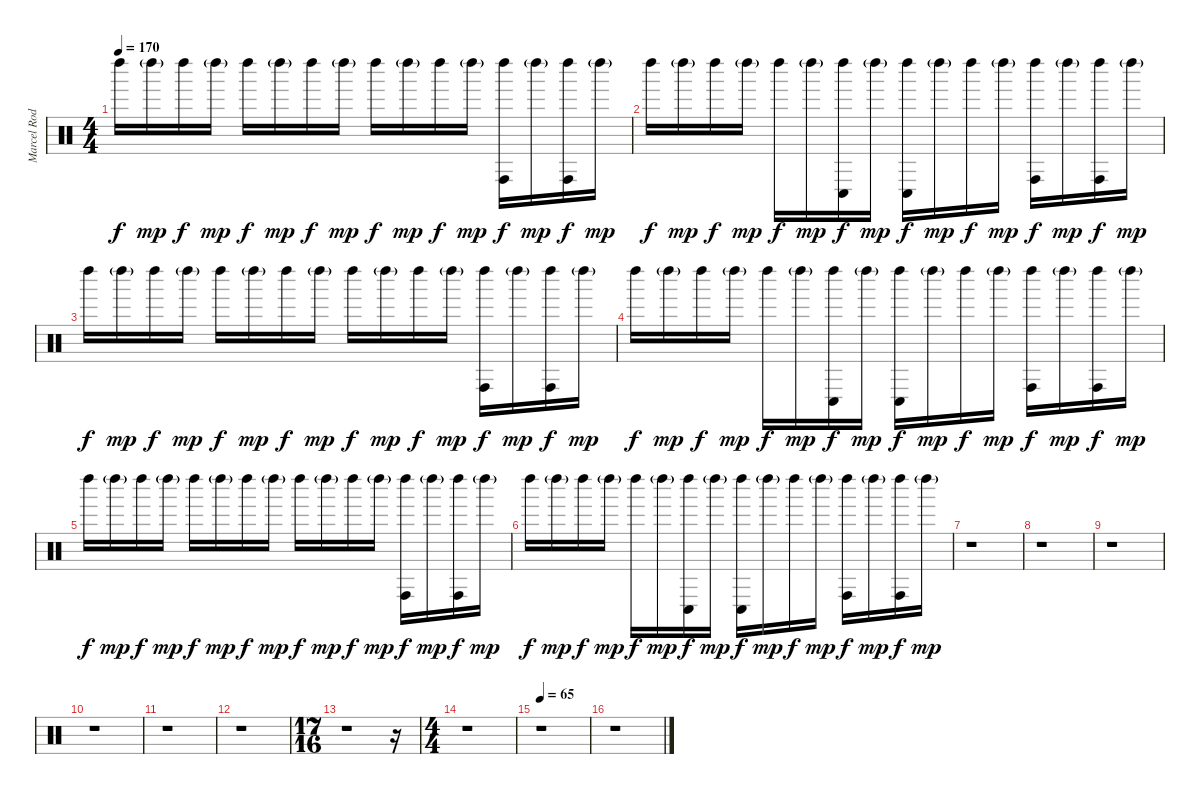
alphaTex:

\track ("Marcel Rodriguez-Lopez/Adrian Terrazas [" "Marcel Rod") {instrument percussion}
\staff {score}
\articulation defaults
\ts (4 4)
\tempo 170
\clef neutral
\ks c "Left Maraca (hit)".16{dy f} "Left Maraca (hit)"{g}.16{dy mp} "Left Maraca (hit)".16{dy f} "Left Maraca (hit)"{g}.16{dy mp} "Left Maraca (hit)".16{dy f} "Left Maraca (hit)"{g}.16{dy mp} "Left Maraca (hit)".16{dy f} "Left Maraca (hit)"{g}.16{dy mp} "Left Maraca (hit)".16{dy f} "Left Maraca (hit)"{g}.16{dy mp} "Left Maraca (hit)".16{dy f} "Left Maraca (hit)"{g}.16{dy mp}
("Left Maraca (hit)" "Conga high (hit)").16{dy f} "Left Maraca (hit)"{g}.16{dy mp} ("Left Maraca (hit)" "Conga high (hit)").16{dy f} "Left Maraca (hit)"{g}.16{dy mp} |
"Left Maraca (hit)".16{dy f} "Left Maraca (hit)"{g}.16{dy mp} "Left Maraca (hit)".16{dy f} "Left Maraca (hit)"{g}.16{dy mp} "Left Maraca (hit)".16{dy f} "Left Maraca (hit)"{g}.16{dy mp} ("Left Maraca (hit)" "Conga low (hit)").16{dy f} "Left Maraca (hit)"{g}.16{dy mp} ("Left Maraca (hit)" "Conga low (hit)").16{dy f} "Left Maraca (hit)"{g}.16{dy mp} "Left Maraca (hit)".16{dy f} "Left Maraca (hit)"{g}.16{dy mp} ("Left Maraca (hit)" "Conga high (hit)").16{dy f} "Left Maraca (hit)"{g}.16{dy mp} ("Left Maraca (hit)" "Conga high (hit)").16{dy f} "Left Maraca (hit)"{g}.16{dy mp} |
"Left Maraca (hit)".16{dy f} "Left Maraca (hit)"{g}.16{dy mp} "Left Maraca (hit)".16{dy f} "Left Maraca (hit)"{g}.16{dy mp} "Left Maraca (hit)".16{dy f} "Left Maraca (hit)"{g}.16{dy mp} "Left Maraca (hit)".16{dy f} "Left Maraca (hit)"{g}.16{dy mp} "Left Maraca (hit)".16{dy f} "Left Maraca (hit)"{g}.16{dy mp} "Left Maraca (hit)".16{dy f} "Left Maraca (hit)"{g}.16{dy mp} ("Left Maraca (hit)" "Conga high (hit)").16{dy f} "Left Maraca (hit)"{g}.16{dy mp} ("Left Maraca (hit)" "Conga high (hit)").16{dy f} "Left Maraca (hit)"{g}.16{dy mp} |
"Left Maraca (hit)".16{dy f} "Left Maraca (hit)"{g}.16{dy mp} "Left Maraca (hit)".16{dy f} "Left Maraca (hit)"{g}.16{dy mp} "Left Maraca (hit)".16{dy f} "Left Maraca (hit)"{g}.16{dy mp} ("Left Maraca (hit)" "Conga low (hit)").16{dy f} "Left Maraca (hit)"{g}.16{dy mp} ("Left Maraca (hit)" "Conga low (hit)").16{dy f} "Left Maraca (hit)"{g}.16{dy mp} "Left Maraca (hit)".16{dy f} "Left Maraca (hit)"{g}.16{dy mp} ("Left Maraca (hit)" "Conga high (hit)").16{dy f} "Left Maraca (hit)"{g}.16{dy mp} ("Left Maraca (hit)" "Conga high (hit)").16{dy f} "Left Maraca (hit)"{g}.16{dy mp} |
"Left Maraca (hit)".16{dy f} "Left Maraca (hit)"{g}.16{dy mp} "Left Maraca (hit)".16{dy f} "Left Maraca (hit)"{g}.16{dy mp} "Left Maraca (hit)".16{dy f} "Left Maraca (hit)"{g}.16{dy mp} "Left Maraca (hit)".16{dy f} "Left Maraca (hit)"{g}.16{dy mp} "Left Maraca (hit)".16{dy f} "Left Maraca (hit)"{g}.16{dy mp} "Left Maraca (hit)".16{dy f} "Left Maraca (hit)"{g}.16{dy mp} ("Left Maraca (hit)" "Conga high (hit)").16{dy f} "Left Maraca (hit)"{g}.16{dy mp} ("Left Maraca (hit)" "Conga high (hit)").16{dy f} "Left Maraca (hit)"{g}.16{dy mp} |
"Left Maraca (hit)".16{dy f} "Left Maraca (hit)"{g}.16{dy mp} "Left Maraca (hit)".16{dy f} "Left Maraca (hit)"{g}.16{dy mp} "Left Maraca (hit)".16{dy f} "Left Maraca (hit)"{g}.16{dy mp} ("Left Maraca (hit)" "Conga low (hit)").16{dy f} "Left Maraca (hit)"{g}.16{dy mp} ("Left Maraca (hit)" "Conga low (hit)").16{dy f} "Left Maraca (hit)"{g}.16{dy mp} "Left Maraca (hit)".16{dy f} "Left Maraca (hit)"{g}.16{dy mp} ("Left Maraca (hit)" "Conga high (hit)").16{dy f} "Left Maraca (hit)"{g}.16{dy mp} ("Left Maraca (hit)" "Conga high (hit)").16{dy f} "Left Maraca (hit)"{g}.16{dy mp} |
r.1 |
r.1 |
r.1 |
r.1 |
r.1 |
r.1 |
\ts (17 16)
r.1 r.16 |
\ts (4 4)
r.1 |
\tempo 65
r.1 |
r.1
